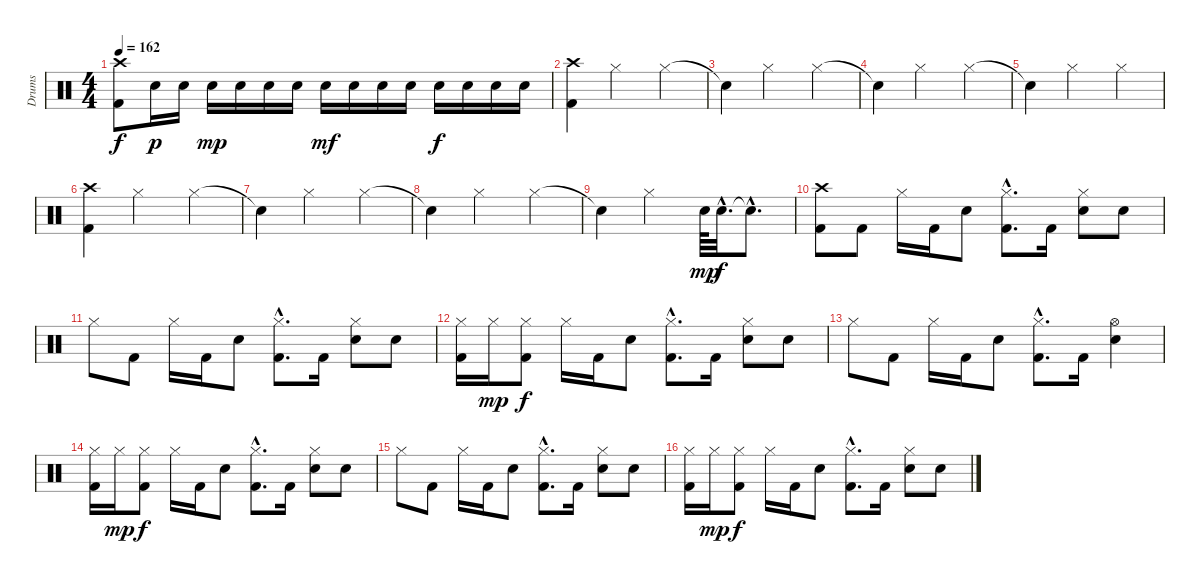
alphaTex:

\track ("Drums" "Drums") {instrument percussion}
\staff {score}
\articulation defaults
\ts (4 4)
\tempo 162
\clef neutral
\ks c
("Crash high (hit)" "Kick (hit) 2").8{dy f} "Electric Snare (hit)".16{dy p} "Electric Snare (hit)".16 "Electric Snare (hit)".16{dy mp} "Electric Snare (hit)".16 "Electric Snare (hit)".16 "Electric Snare (hit)".16 "Electric Snare (hit)".16{dy mf} "Electric Snare (hit)".16 "Electric Snare (hit)".16 "Electric Snare (hit)".16 "Electric Snare (hit)".16{dy f} "Electric Snare (hit)".16 "Electric Snare (hit)".16 "Electric Snare (hit)".16 |
("Crash high (hit)" "Kick (hit) 2").4 "Hi-Hat (closed)".2 "Hi-Hat (closed)".4 |
"Snare (hit)"{t}.4 "Hi-Hat (closed)".2 "Hi-Hat (closed)".4 |
"Snare (hit)"{t}.4 "Hi-Hat (closed)".2 "Hi-Hat (closed)".4 |
"Snare (hit)"{t}.4 "Hi-Hat (closed)".2 "Hi-Hat (closed)".4 |
("Crash high (hit)" "Kick (hit) 2").4 "Hi-Hat (closed)".2 "Hi-Hat (closed)".4 |
"Snare (hit)"{t}.4 "Hi-Hat (closed)".2 "Hi-Hat (closed)".4 |
"Snare (hit)"{t}.4 "Hi-Hat (closed)".2 "Hi-Hat (closed)".4 |
"Snare (hit)"{t}.4 "Hi-Hat (closed)".2 "Electric Snare (hit)".64{dy mp} "Electric Snare (hit)"{hac}.32{d dy f} "Snare (hit)"{hac t}.8{d} |
("Crash high (hit)" "Kick (hit) 2").8 "Kick (hit) 2".8 "Hi-Hat (closed)".16 "Kick (hit) 2".16 "Electric Snare (hit)".8 ("Hi-Hat (closed)"{hac} "Kick (hit) 2"{hac}).8{d} "Kick (hit) 2".16 ("Hi-Hat (closed)" "Electric Snare (hit)").8 "Electric Snare (hit)".8 |
"Hi-Hat (closed)".8 "Kick (hit) 2".8 "Hi-Hat (closed)".16 "Kick (hit) 2".16 "Electric Snare (hit)".8 ("Hi-Hat (closed)"{hac} "Kick (hit) 2"{hac}).8{d} "Kick (hit) 2".16 ("Hi-Hat (closed)" "Electric Snare (hit)").8 "Electric Snare (hit)".8 |
("Hi-Hat (closed)" "Kick (hit) 2").16 "Hi-Hat (closed)".16{dy mp} ("Hi-Hat (closed)" "Kick (hit) 2").8{dy f} "Hi-Hat (closed)".16 "Kick (hit) 2".16 "Electric Snare (hit)".8 ("Hi-Hat (closed)"{hac} "Kick (hit) 2"{hac}).8{d} "Kick (hit) 2".16 ("Hi-Hat (closed)" "Electric Snare (hit)").8 "Electric Snare (hit)".8 |
"Hi-Hat (closed)".8 "Kick (hit) 2".8 "Hi-Hat (closed)".16 "Kick (hit) 2".16 "Electric Snare (hit)".8 ("Hi-Hat (closed)"{hac} "Kick (hit) 2"{hac}).8{d} "Kick (hit) 2".16 ("Hi-Hat (open)" "Electric Snare (hit)").4 |
("Hi-Hat (closed)" "Kick (hit) 2").16 "Hi-Hat (closed)".16{dy mp} ("Hi-Hat (closed)" "Kick (hit) 2").8{dy f} "Hi-Hat (closed)".16 "Kick (hit) 2".16 "Electric Snare (hit)".8 ("Hi-Hat (closed)"{hac} "Kick (hit) 2"{hac}).8{d} "Kick (hit) 2".16 ("Hi-Hat (closed)" "Electric Snare (hit)").8 "Electric Snare (hit)".8 |
"Hi-Hat (closed)".8 "Kick (hit) 2".8 "Hi-Hat (closed)".16 "Kick (hit) 2".16 "Electric Snare (hit)".8 ("Hi-Hat (closed)"{hac} "Kick (hit) 2"{hac}).8{d} "Kick (hit) 2".16 ("Hi-Hat (closed)" "Electric Snare (hit)").8 "Electric Snare (hit)".8 |
("Hi-Hat (closed)" "Kick (hit) 2").16 "Hi-Hat (closed)".16{dy mp} ("Hi-Hat (closed)" "Kick (hit) 2").8{dy f} "Hi-Hat (closed)".16 "Kick (hit) 2".16 "Electric Snare (hit)".8 ("Hi-Hat (closed)"{hac} "Kick (hit) 2"{hac}).8{d} "Kick (hit) 2".16 ("Hi-Hat (closed)" "Electric Snare (hit)").8 "Electric Snare (hit)".8
